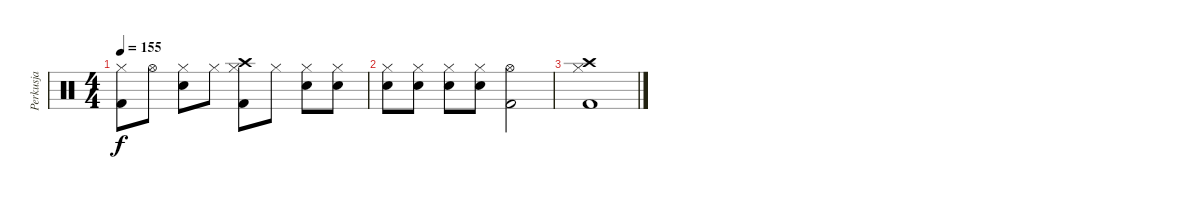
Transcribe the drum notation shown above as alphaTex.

\track ("Perkusja" "Perkusja") {instrument percussion}
\staff {score}
\articulation defaults
\ts (4 4)
\tempo 155
\clef neutral
\ks c
("Hi-Hat (closed)" "Kick (hit) 2").8{dy f} "Hi-Hat (open)".8 ("Hi-Hat (closed)" "Electric Snare (hit)").8 "Hi-Hat (closed)".8 ("Hi-Hat (closed)" "Kick (hit) 2" "Crash high (hit)").8 "Hi-Hat (closed)".8 ("Hi-Hat (closed)" "Electric Snare (hit)").8 ("Hi-Hat (closed)" "Electric Snare (hit)").8 |
("Hi-Hat (closed)" "Electric Snare (hit)").8 ("Hi-Hat (closed)" "Electric Snare (hit)").8 ("Hi-Hat (closed)" "Electric Snare (hit)").8 ("Hi-Hat (closed)" "Electric Snare (hit)").8 ("Kick (hit) 2" "Hi-Hat (open)").2 |
("Kick (hit) 2" "Hi-Hat (closed)" "Crash high (hit)").1
